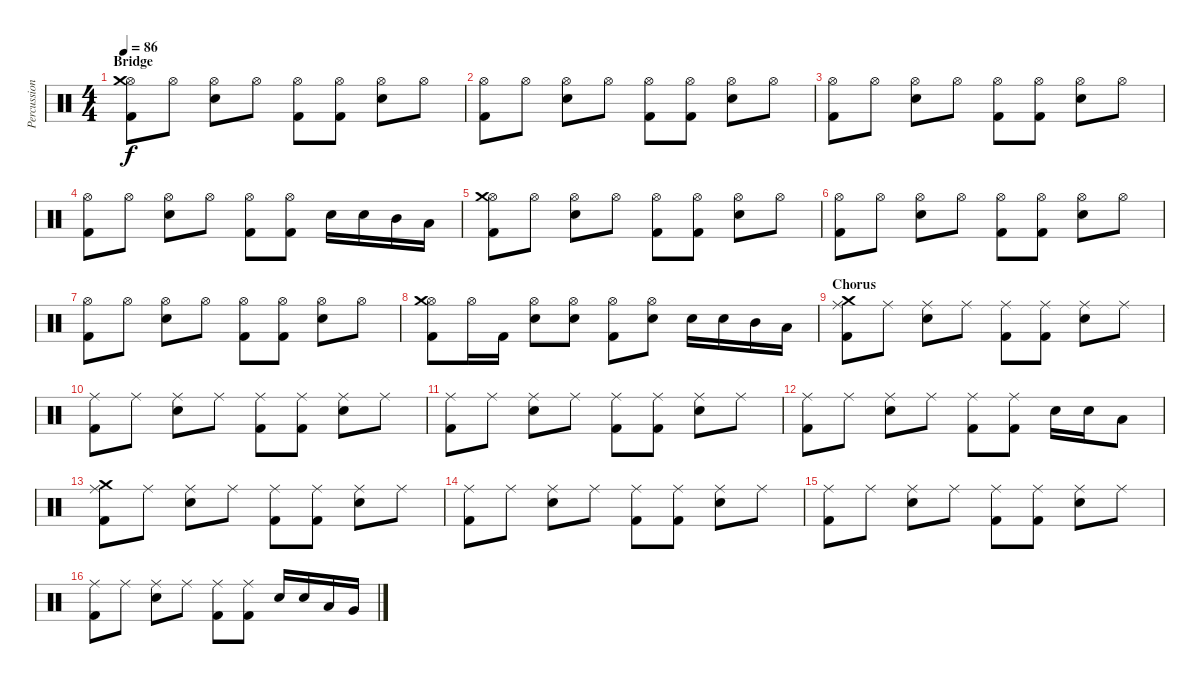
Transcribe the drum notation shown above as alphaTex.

\track ("Percussion" "Percussion") {instrument percussion}
\staff {score}
\articulation defaults
\ts (4 4)
\section ("" "Bridge")
\tempo 86
\clef neutral
\ks c
("Kick (hit) 2" "Hi-Hat (open)" "Crash medium (hit)").8{dy f} "Hi-Hat (open)".8 ("Electric Snare (hit)" "Hi-Hat (open)").8 "Hi-Hat (open)".8 ("Kick (hit) 2" "Hi-Hat (open)").8 ("Kick (hit) 2" "Hi-Hat (open)").8 ("Electric Snare (hit)" "Hi-Hat (open)").8 "Hi-Hat (open)".8 |
("Kick (hit) 2" "Hi-Hat (open)").8 "Hi-Hat (open)".8 ("Electric Snare (hit)" "Hi-Hat (open)").8 "Hi-Hat (open)".8 ("Kick (hit) 2" "Hi-Hat (open)").8 ("Kick (hit) 2" "Hi-Hat (open)").8 ("Electric Snare (hit)" "Hi-Hat (open)").8 "Hi-Hat (open)".8 |
("Kick (hit) 2" "Hi-Hat (open)").8 "Hi-Hat (open)".8 ("Electric Snare (hit)" "Hi-Hat (open)").8 "Hi-Hat (open)".8 ("Kick (hit) 2" "Hi-Hat (open)").8 ("Kick (hit) 2" "Hi-Hat (open)").8 ("Electric Snare (hit)" "Hi-Hat (open)").8 "Hi-Hat (open)".8 |
("Kick (hit) 2" "Hi-Hat (open)").8 "Hi-Hat (open)".8 ("Electric Snare (hit)" "Hi-Hat (open)").8 "Hi-Hat (open)".8 ("Kick (hit) 2" "Hi-Hat (open)").8 ("Kick (hit) 2" "Hi-Hat (open)").8 "Electric Snare (hit)".16 "Electric Snare (hit)".16 "Mid Tom (hit)".16 "Low Tom (hit)".16 |
("Kick (hit) 2" "Hi-Hat (open)" "Crash medium (hit)").8 "Hi-Hat (open)".8 ("Electric Snare (hit)" "Hi-Hat (open)").8 "Hi-Hat (open)".8 ("Kick (hit) 2" "Hi-Hat (open)").8 ("Kick (hit) 2" "Hi-Hat (open)").8 ("Electric Snare (hit)" "Hi-Hat (open)").8 "Hi-Hat (open)".8 |
("Kick (hit) 2" "Hi-Hat (open)").8 "Hi-Hat (open)".8 ("Electric Snare (hit)" "Hi-Hat (open)").8 "Hi-Hat (open)".8 ("Kick (hit) 2" "Hi-Hat (open)").8 ("Kick (hit) 2" "Hi-Hat (open)").8 ("Electric Snare (hit)" "Hi-Hat (open)").8 "Hi-Hat (open)".8 |
("Kick (hit) 2" "Hi-Hat (open)").8 "Hi-Hat (open)".8 ("Electric Snare (hit)" "Hi-Hat (open)").8 "Hi-Hat (open)".8 ("Kick (hit) 2" "Hi-Hat (open)").8 ("Kick (hit) 2" "Hi-Hat (open)").8 ("Electric Snare (hit)" "Hi-Hat (open)").8 "Hi-Hat (open)".8 |
("Kick (hit) 2" "Hi-Hat (open)" "Crash medium (hit)").8 "Hi-Hat (open)".16 "Kick (hit) 2".16 ("Electric Snare (hit)" "Hi-Hat (open)").8 ("Electric Snare (hit)" "Hi-Hat (open)").8 ("Kick (hit) 2" "Hi-Hat (open)").8 ("Electric Snare (hit)" "Hi-Hat (open)").8 "Electric Snare (hit)".16 "Electric Snare (hit)".16 "Mid Tom (hit)".16 "Low Tom (hit)".16 |
\section ("" "Chorus")
("Kick (hit) 2" "Ride (middle)" "Crash medium (hit)").8 "Ride (middle)".8 ("Electric Snare (hit)" "Ride (middle)").8 "Ride (middle)".8 ("Kick (hit) 2" "Ride (middle)").8 ("Kick (hit) 2" "Ride (middle)").8 ("Electric Snare (hit)" "Ride (middle)").8 "Ride (middle)".8 |
("Kick (hit) 2" "Ride (middle)").8 "Ride (middle)".8 ("Electric Snare (hit)" "Ride (middle)").8 "Ride (middle)".8 ("Kick (hit) 2" "Ride (middle)").8 ("Kick (hit) 2" "Ride (middle)").8 ("Electric Snare (hit)" "Ride (middle)").8 "Ride (middle)".8 |
("Kick (hit) 2" "Ride (middle)").8 "Ride (middle)".8 ("Electric Snare (hit)" "Ride (middle)").8 "Ride (middle)".8 ("Kick (hit) 2" "Ride (middle)").8 ("Kick (hit) 2" "Ride (middle)").8 ("Electric Snare (hit)" "Ride (middle)").8 "Ride (middle)".8 |
("Kick (hit) 2" "Ride (middle)").8 "Ride (middle)".8 ("Electric Snare (hit)" "Ride (middle)").8 "Ride (middle)".8 ("Kick (hit) 2" "Ride (middle)").8 ("Kick (hit) 2" "Ride (middle)").8 "Electric Snare (hit)".16 "Electric Snare (hit)".16 "Low Tom (hit)".8 |
("Kick (hit) 2" "Ride (middle)" "Crash medium (hit)").8 "Ride (middle)".8 ("Electric Snare (hit)" "Ride (middle)").8 "Ride (middle)".8 ("Kick (hit) 2" "Ride (middle)").8 ("Kick (hit) 2" "Ride (middle)").8 ("Electric Snare (hit)" "Ride (middle)").8 "Ride (middle)".8 |
("Kick (hit) 2" "Ride (middle)").8 "Ride (middle)".8 ("Electric Snare (hit)" "Ride (middle)").8 "Ride (middle)".8 ("Kick (hit) 2" "Ride (middle)").8 ("Kick (hit) 2" "Ride (middle)").8 ("Electric Snare (hit)" "Ride (middle)").8 "Ride (middle)".8 |
("Kick (hit) 2" "Ride (middle)").8 "Ride (middle)".8 ("Electric Snare (hit)" "Ride (middle)").8 "Ride (middle)".8 ("Kick (hit) 2" "Ride (middle)").8 ("Kick (hit) 2" "Ride (middle)").8 ("Electric Snare (hit)" "Ride (middle)").8 "Ride (middle)".8 |
("Kick (hit) 2" "Ride (middle)").8 "Ride (middle)".8 ("Electric Snare (hit)" "Ride (middle)").8 "Ride (middle)".8 ("Kick (hit) 2" "Ride (middle)").8 ("Kick (hit) 2" "Ride (middle)").8 "Electric Snare (hit)".16 "Electric Snare (hit)".16 "Low Tom (hit)".16 "Very Low Tom (hit)".16
